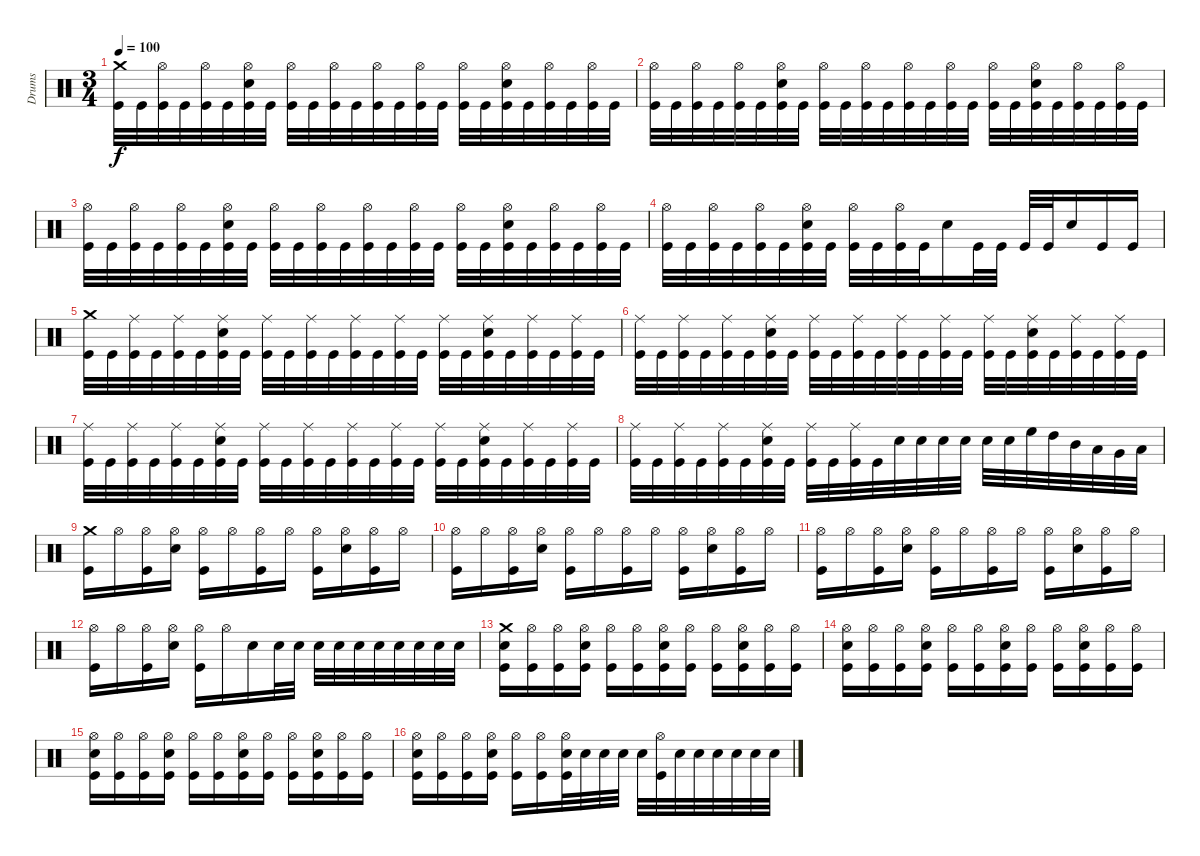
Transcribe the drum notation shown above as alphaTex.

\track ("Drums" "Drums") {instrument percussion}
\staff {score}
\articulation defaults
\ts (3 4)
\tempo 100
\clef neutral
\ks c
("Kick (hit)" "Crash medium (hit)").32{dy f} "Kick (hit)".32 ("Kick (hit)" "Hi-Hat (open)").32 "Kick (hit)".32 ("Kick (hit)" "Hi-Hat (open)").32 "Kick (hit)".32 ("Kick (hit)" "Hi-Hat (open)" "Electric Snare (hit)").32 "Kick (hit)".32 ("Kick (hit)" "Hi-Hat (open)").32 "Kick (hit)".32 ("Kick (hit)" "Hi-Hat (open)").32 "Kick (hit)".32 ("Kick (hit)" "Hi-Hat (open)").32 "Kick (hit)".32 ("Kick (hit)" "Hi-Hat (open)").32 "Kick (hit)".32 ("Kick (hit)" "Hi-Hat (open)").32 "Kick (hit)".32 ("Kick (hit)" "Hi-Hat (open)" "Electric Snare (hit)").32 "Kick (hit)".32 ("Kick (hit)" "Hi-Hat (open)").32 "Kick (hit)".32 ("Kick (hit)" "Hi-Hat (open)").32 "Kick (hit)".32 |
("Kick (hit)" "Hi-Hat (open)").32 "Kick (hit)".32 ("Kick (hit)" "Hi-Hat (open)").32 "Kick (hit)".32 ("Kick (hit)" "Hi-Hat (open)").32 "Kick (hit)".32 ("Kick (hit)" "Hi-Hat (open)" "Electric Snare (hit)").32 "Kick (hit)".32 ("Kick (hit)" "Hi-Hat (open)").32 "Kick (hit)".32 ("Kick (hit)" "Hi-Hat (open)").32 "Kick (hit)".32 ("Kick (hit)" "Hi-Hat (open)").32 "Kick (hit)".32 ("Kick (hit)" "Hi-Hat (open)").32 "Kick (hit)".32 ("Kick (hit)" "Hi-Hat (open)").32 "Kick (hit)".32 ("Kick (hit)" "Hi-Hat (open)" "Electric Snare (hit)").32 "Kick (hit)".32 ("Kick (hit)" "Hi-Hat (open)").32 "Kick (hit)".32 ("Kick (hit)" "Hi-Hat (open)").32 "Kick (hit)".32 |
("Kick (hit)" "Hi-Hat (open)").32 "Kick (hit)".32 ("Kick (hit)" "Hi-Hat (open)").32 "Kick (hit)".32 ("Kick (hit)" "Hi-Hat (open)").32 "Kick (hit)".32 ("Kick (hit)" "Hi-Hat (open)" "Electric Snare (hit)").32 "Kick (hit)".32 ("Kick (hit)" "Hi-Hat (open)").32 "Kick (hit)".32 ("Kick (hit)" "Hi-Hat (open)").32 "Kick (hit)".32 ("Kick (hit)" "Hi-Hat (open)").32 "Kick (hit)".32 ("Kick (hit)" "Hi-Hat (open)").32 "Kick (hit)".32 ("Kick (hit)" "Hi-Hat (open)").32 "Kick (hit)".32 ("Kick (hit)" "Hi-Hat (open)" "Electric Snare (hit)").32 "Kick (hit)".32 ("Kick (hit)" "Hi-Hat (open)").32 "Kick (hit)".32 ("Kick (hit)" "Hi-Hat (open)").32 "Kick (hit)".32 |
("Kick (hit)" "Hi-Hat (open)").32 "Kick (hit)".32 ("Kick (hit)" "Hi-Hat (open)").32 "Kick (hit)".32 ("Kick (hit)" "Hi-Hat (open)").32 "Kick (hit)".32 ("Kick (hit)" "Hi-Hat (open)" "Electric Snare (hit)").32 "Kick (hit)".32 ("Kick (hit)" "Hi-Hat (open)").32 "Kick (hit)".32 ("Kick (hit)" "Hi-Hat (open)").32 "Kick (hit)".32 "Electric Snare (hit)".16 "Kick (hit)".32 "Kick (hit)".32 "Kick (hit)".32 "Kick (hit)".32 "Electric Snare (hit)".16 "Kick (hit)".16 "Kick (hit)".16 |
("Kick (hit)" "Crash medium (hit)").32 "Kick (hit)".32 ("Kick (hit)" "Ride (middle)").32 "Kick (hit)".32 ("Kick (hit)" "Ride (middle)").32 "Kick (hit)".32 ("Kick (hit)" "Ride (middle)" "Electric Snare (hit)").32 "Kick (hit)".32 ("Kick (hit)" "Ride (middle)").32 "Kick (hit)".32 ("Kick (hit)" "Ride (middle)").32 "Kick (hit)".32 ("Kick (hit)" "Ride (middle)").32 "Kick (hit)".32 ("Kick (hit)" "Ride (middle)").32 "Kick (hit)".32 ("Kick (hit)" "Ride (middle)").32 "Kick (hit)".32 ("Kick (hit)" "Ride (middle)" "Electric Snare (hit)").32 "Kick (hit)".32 ("Kick (hit)" "Ride (middle)").32 "Kick (hit)".32 ("Kick (hit)" "Ride (middle)").32 "Kick (hit)".32 |
("Kick (hit)" "Ride (middle)").32 "Kick (hit)".32 ("Kick (hit)" "Ride (middle)").32 "Kick (hit)".32 ("Kick (hit)" "Ride (middle)").32 "Kick (hit)".32 ("Kick (hit)" "Ride (middle)" "Electric Snare (hit)").32 "Kick (hit)".32 ("Kick (hit)" "Ride (middle)").32 "Kick (hit)".32 ("Kick (hit)" "Ride (middle)").32 "Kick (hit)".32 ("Kick (hit)" "Ride (middle)").32 "Kick (hit)".32 ("Kick (hit)" "Ride (middle)").32 "Kick (hit)".32 ("Kick (hit)" "Ride (middle)").32 "Kick (hit)".32 ("Kick (hit)" "Ride (middle)" "Electric Snare (hit)").32 "Kick (hit)".32 ("Kick (hit)" "Ride (middle)").32 "Kick (hit)".32 ("Kick (hit)" "Ride (middle)").32 "Kick (hit)".32 |
("Kick (hit)" "Ride (middle)").32 "Kick (hit)".32 ("Kick (hit)" "Ride (middle)").32 "Kick (hit)".32 ("Kick (hit)" "Ride (middle)").32 "Kick (hit)".32 ("Kick (hit)" "Ride (middle)" "Electric Snare (hit)").32 "Kick (hit)".32 ("Kick (hit)" "Ride (middle)").32 "Kick (hit)".32 ("Kick (hit)" "Ride (middle)").32 "Kick (hit)".32 ("Kick (hit)" "Ride (middle)").32 "Kick (hit)".32 ("Kick (hit)" "Ride (middle)").32 "Kick (hit)".32 ("Kick (hit)" "Ride (middle)").32 "Kick (hit)".32 ("Kick (hit)" "Ride (middle)" "Electric Snare (hit)").32 "Kick (hit)".32 ("Kick (hit)" "Ride (middle)").32 "Kick (hit)".32 ("Kick (hit)" "Ride (middle)").32 "Kick (hit)".32 |
("Kick (hit)" "Ride (middle)").32 "Kick (hit)".32 ("Kick (hit)" "Ride (middle)").32 "Kick (hit)".32 ("Kick (hit)" "Ride (middle)").32 "Kick (hit)".32 ("Kick (hit)" "Ride (middle)" "Electric Snare (hit)").32 "Kick (hit)".32 ("Kick (hit)" "Ride (middle)").32 "Kick (hit)".32 ("Kick (hit)" "Ride (middle)").32 "Kick (hit)".32 "Electric Snare (hit)".32 "Electric Snare (hit)".32 "Electric Snare (hit)".32 "Electric Snare (hit)".32 "Electric Snare (hit)".32 "Electric Snare (hit)".32 "High Floor Tom (hit)".32 "High Tom (hit)".32 "Mid Tom (hit)".32 "Low Tom (hit)".32 "Very Low Tom (hit)".32 "Low Floor Tom (hit)".32 |
("Kick (hit)" "Crash medium (hit)").16 "Hi-Hat (open)".16 ("Kick (hit)" "Hi-Hat (open)").16 ("Hi-Hat (open)" "Electric Snare (hit)").16 ("Kick (hit)" "Hi-Hat (open)").16 "Hi-Hat (open)".16 ("Kick (hit)" "Hi-Hat (open)").16 "Hi-Hat (open)".16 ("Kick (hit)" "Hi-Hat (open)").16 ("Hi-Hat (open)" "Electric Snare (hit)").16 ("Kick (hit)" "Hi-Hat (open)").16 "Hi-Hat (open)".16 |
("Kick (hit)" "Hi-Hat (open)").16 "Hi-Hat (open)".16 ("Kick (hit)" "Hi-Hat (open)").16 ("Hi-Hat (open)" "Electric Snare (hit)").16 ("Kick (hit)" "Hi-Hat (open)").16 "Hi-Hat (open)".16 ("Kick (hit)" "Hi-Hat (open)").16 "Hi-Hat (open)".16 ("Kick (hit)" "Hi-Hat (open)").16 ("Hi-Hat (open)" "Electric Snare (hit)").16 ("Kick (hit)" "Hi-Hat (open)").16 "Hi-Hat (open)".16 |
("Kick (hit)" "Hi-Hat (open)").16 "Hi-Hat (open)".16 ("Kick (hit)" "Hi-Hat (open)").16 ("Hi-Hat (open)" "Electric Snare (hit)").16 ("Kick (hit)" "Hi-Hat (open)").16 "Hi-Hat (open)".16 ("Kick (hit)" "Hi-Hat (open)").16 "Hi-Hat (open)".16 ("Kick (hit)" "Hi-Hat (open)").16 ("Hi-Hat (open)" "Electric Snare (hit)").16 ("Kick (hit)" "Hi-Hat (open)").16 "Hi-Hat (open)".16 |
("Kick (hit)" "Hi-Hat (open)").16 "Hi-Hat (open)".16 ("Kick (hit)" "Hi-Hat (open)").16 ("Hi-Hat (open)" "Electric Snare (hit)").16 ("Kick (hit)" "Hi-Hat (open)").16 "Hi-Hat (open)".16 "Electric Snare (hit)".16 "Electric Snare (hit)".32 "Electric Snare (hit)".32 "Electric Snare (hit)".32 "Electric Snare (hit)".32 "Electric Snare (hit)".32 "Electric Snare (hit)".32 "Electric Snare (hit)".32 "Electric Snare (hit)".32 "Electric Snare (hit)".32 "Electric Snare (hit)".32 |
("Kick (hit)" "Electric Snare (hit)" "Crash medium (hit)").16 ("Kick (hit)" "Hi-Hat (open)").16 ("Kick (hit)" "Hi-Hat (open)").16 ("Kick (hit)" "Hi-Hat (open)" "Electric Snare (hit)").16 ("Kick (hit)" "Hi-Hat (open)").16 ("Kick (hit)" "Hi-Hat (open)").16 ("Kick (hit)" "Hi-Hat (open)" "Electric Snare (hit)").16 ("Kick (hit)" "Hi-Hat (open)").16 ("Kick (hit)" "Hi-Hat (open)").16 ("Kick (hit)" "Hi-Hat (open)" "Electric Snare (hit)").16 ("Kick (hit)" "Hi-Hat (open)").16 ("Kick (hit)" "Hi-Hat (open)").16 |
("Kick (hit)" "Hi-Hat (open)" "Electric Snare (hit)").16 ("Kick (hit)" "Hi-Hat (open)").16 ("Kick (hit)" "Hi-Hat (open)").16 ("Kick (hit)" "Hi-Hat (open)" "Electric Snare (hit)").16 ("Kick (hit)" "Hi-Hat (open)").16 ("Kick (hit)" "Hi-Hat (open)").16 ("Kick (hit)" "Hi-Hat (open)" "Electric Snare (hit)").16 ("Kick (hit)" "Hi-Hat (open)").16 ("Kick (hit)" "Hi-Hat (open)").16 ("Kick (hit)" "Hi-Hat (open)" "Electric Snare (hit)").16 ("Kick (hit)" "Hi-Hat (open)").16 ("Kick (hit)" "Hi-Hat (open)").16 |
("Kick (hit)" "Hi-Hat (open)" "Electric Snare (hit)").16 ("Kick (hit)" "Hi-Hat (open)").16 ("Kick (hit)" "Hi-Hat (open)").16 ("Kick (hit)" "Hi-Hat (open)" "Electric Snare (hit)").16 ("Kick (hit)" "Hi-Hat (open)").16 ("Kick (hit)" "Hi-Hat (open)").16 ("Kick (hit)" "Hi-Hat (open)" "Electric Snare (hit)").16 ("Kick (hit)" "Hi-Hat (open)").16 ("Kick (hit)" "Hi-Hat (open)").16 ("Kick (hit)" "Hi-Hat (open)" "Electric Snare (hit)").16 ("Kick (hit)" "Hi-Hat (open)").16 ("Kick (hit)" "Hi-Hat (open)").16 |
("Kick (hit)" "Hi-Hat (open)" "Electric Snare (hit)").16 ("Kick (hit)" "Hi-Hat (open)").16 ("Kick (hit)" "Hi-Hat (open)").16 ("Kick (hit)" "Hi-Hat (open)" "Electric Snare (hit)").16 ("Kick (hit)" "Hi-Hat (open)").16 ("Kick (hit)" "Hi-Hat (open)").16 ("Kick (hit)" "Hi-Hat (open)" "Electric Snare (hit)").32 "Electric Snare (hit)".32 "Electric Snare (hit)".32 "Electric Snare (hit)".32 "Electric Snare (hit)".32 ("Kick (hit)" "Hi-Hat (open)").32 "Electric Snare (hit)".32 "Electric Snare (hit)".32 "Electric Snare (hit)".32 "Electric Snare (hit)".32 "Electric Snare (hit)".32 "Electric Snare (hit)".32
